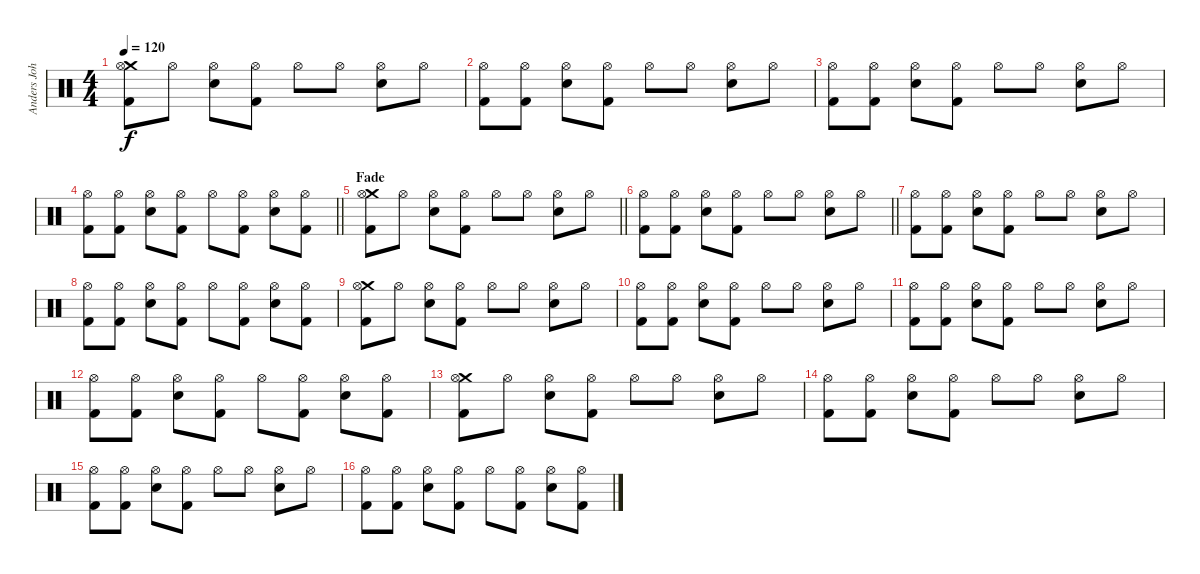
\track ("Anders Johansson" "Anders Joh") {instrument percussion}
\staff {score}
\articulation defaults
\ts (4 4)
\tempo 120
\clef neutral
\ks c
("Crash medium (hit)" "Hi-Hat (open)" "Kick (hit) 2").8{dy f} "Hi-Hat (open)".8 ("Hi-Hat (open)" "Snare (hit) 2").8 ("Hi-Hat (open)" "Kick (hit) 2").8 "Hi-Hat (open)".8 "Hi-Hat (open)".8 ("Hi-Hat (open)" "Snare (hit) 2").8 "Hi-Hat (open)".8 |
("Hi-Hat (open)" "Kick (hit) 2").8 ("Hi-Hat (open)" "Kick (hit) 2").8 ("Hi-Hat (open)" "Snare (hit) 2").8 ("Hi-Hat (open)" "Kick (hit) 2").8 "Hi-Hat (open)".8 "Hi-Hat (open)".8 ("Hi-Hat (open)" "Snare (hit) 2").8 "Hi-Hat (open)".8 |
("Hi-Hat (open)" "Kick (hit) 2").8 ("Hi-Hat (open)" "Kick (hit) 2").8 ("Hi-Hat (open)" "Snare (hit) 2").8 ("Hi-Hat (open)" "Kick (hit) 2").8 "Hi-Hat (open)".8 "Hi-Hat (open)".8 ("Hi-Hat (open)" "Snare (hit) 2").8 "Hi-Hat (open)".8 |
\barLineRight lightlight
("Hi-Hat (open)" "Kick (hit) 2").8 ("Hi-Hat (open)" "Kick (hit) 2").8 ("Hi-Hat (open)" "Snare (hit) 2").8 ("Hi-Hat (open)" "Kick (hit) 2").8 "Hi-Hat (open)".8 ("Hi-Hat (open)" "Kick (hit) 2").8 ("Hi-Hat (open)" "Snare (hit) 2").8 ("Hi-Hat (open)" "Kick (hit) 2").8 |
\section ("" "Fade")
\barLineRight lightlight
("Crash medium (hit)" "Hi-Hat (open)" "Kick (hit) 2").8 "Hi-Hat (open)".8 ("Hi-Hat (open)" "Snare (hit) 2").8 ("Hi-Hat (open)" "Kick (hit) 2").8 "Hi-Hat (open)".8 "Hi-Hat (open)".8 ("Hi-Hat (open)" "Snare (hit) 2").8 "Hi-Hat (open)".8 |
\barLineRight lightlight
("Hi-Hat (open)" "Kick (hit) 2").8 ("Hi-Hat (open)" "Kick (hit) 2").8 ("Hi-Hat (open)" "Snare (hit) 2").8 ("Hi-Hat (open)" "Kick (hit) 2").8 "Hi-Hat (open)".8 "Hi-Hat (open)".8 ("Hi-Hat (open)" "Snare (hit) 2").8 "Hi-Hat (open)".8 |
("Hi-Hat (open)" "Kick (hit) 2").8 ("Hi-Hat (open)" "Kick (hit) 2").8 ("Hi-Hat (open)" "Snare (hit) 2").8 ("Hi-Hat (open)" "Kick (hit) 2").8 "Hi-Hat (open)".8 "Hi-Hat (open)".8 ("Hi-Hat (open)" "Snare (hit) 2").8 "Hi-Hat (open)".8 |
("Hi-Hat (open)" "Kick (hit) 2").8 ("Hi-Hat (open)" "Kick (hit) 2").8 ("Hi-Hat (open)" "Snare (hit) 2").8 ("Hi-Hat (open)" "Kick (hit) 2").8 "Hi-Hat (open)".8 ("Hi-Hat (open)" "Kick (hit) 2").8 ("Hi-Hat (open)" "Snare (hit) 2").8 ("Hi-Hat (open)" "Kick (hit) 2").8 |
("Crash medium (hit)" "Hi-Hat (open)" "Kick (hit) 2").8 "Hi-Hat (open)".8 ("Hi-Hat (open)" "Snare (hit) 2").8 ("Hi-Hat (open)" "Kick (hit) 2").8 "Hi-Hat (open)".8 "Hi-Hat (open)".8 ("Hi-Hat (open)" "Snare (hit) 2").8 "Hi-Hat (open)".8 |
("Hi-Hat (open)" "Kick (hit) 2").8 ("Hi-Hat (open)" "Kick (hit) 2").8 ("Hi-Hat (open)" "Snare (hit) 2").8 ("Hi-Hat (open)" "Kick (hit) 2").8 "Hi-Hat (open)".8 "Hi-Hat (open)".8 ("Hi-Hat (open)" "Snare (hit) 2").8 "Hi-Hat (open)".8 |
("Hi-Hat (open)" "Kick (hit) 2").8 ("Hi-Hat (open)" "Kick (hit) 2").8 ("Hi-Hat (open)" "Snare (hit) 2").8 ("Hi-Hat (open)" "Kick (hit) 2").8 "Hi-Hat (open)".8 "Hi-Hat (open)".8 ("Hi-Hat (open)" "Snare (hit) 2").8 "Hi-Hat (open)".8 |
("Hi-Hat (open)" "Kick (hit) 2").8 ("Hi-Hat (open)" "Kick (hit) 2").8 ("Hi-Hat (open)" "Snare (hit) 2").8 ("Hi-Hat (open)" "Kick (hit) 2").8 "Hi-Hat (open)".8 ("Hi-Hat (open)" "Kick (hit) 2").8 ("Hi-Hat (open)" "Snare (hit) 2").8 ("Hi-Hat (open)" "Kick (hit) 2").8 |
("Crash medium (hit)" "Hi-Hat (open)" "Kick (hit) 2").8 "Hi-Hat (open)".8 ("Hi-Hat (open)" "Snare (hit) 2").8 ("Hi-Hat (open)" "Kick (hit) 2").8 "Hi-Hat (open)".8 "Hi-Hat (open)".8 ("Hi-Hat (open)" "Snare (hit) 2").8 "Hi-Hat (open)".8 |
("Hi-Hat (open)" "Kick (hit) 2").8 ("Hi-Hat (open)" "Kick (hit) 2").8 ("Hi-Hat (open)" "Snare (hit) 2").8 ("Hi-Hat (open)" "Kick (hit) 2").8 "Hi-Hat (open)".8 "Hi-Hat (open)".8 ("Hi-Hat (open)" "Snare (hit) 2").8 "Hi-Hat (open)".8 |
("Hi-Hat (open)" "Kick (hit) 2").8 ("Hi-Hat (open)" "Kick (hit) 2").8 ("Hi-Hat (open)" "Snare (hit) 2").8 ("Hi-Hat (open)" "Kick (hit) 2").8 "Hi-Hat (open)".8 "Hi-Hat (open)".8 ("Hi-Hat (open)" "Snare (hit) 2").8 "Hi-Hat (open)".8 |
("Hi-Hat (open)" "Kick (hit) 2").8 ("Hi-Hat (open)" "Kick (hit) 2").8 ("Hi-Hat (open)" "Snare (hit) 2").8 ("Hi-Hat (open)" "Kick (hit) 2").8 "Hi-Hat (open)".8 ("Hi-Hat (open)" "Kick (hit) 2").8 ("Hi-Hat (open)" "Snare (hit) 2").8 ("Hi-Hat (open)" "Kick (hit) 2").8
